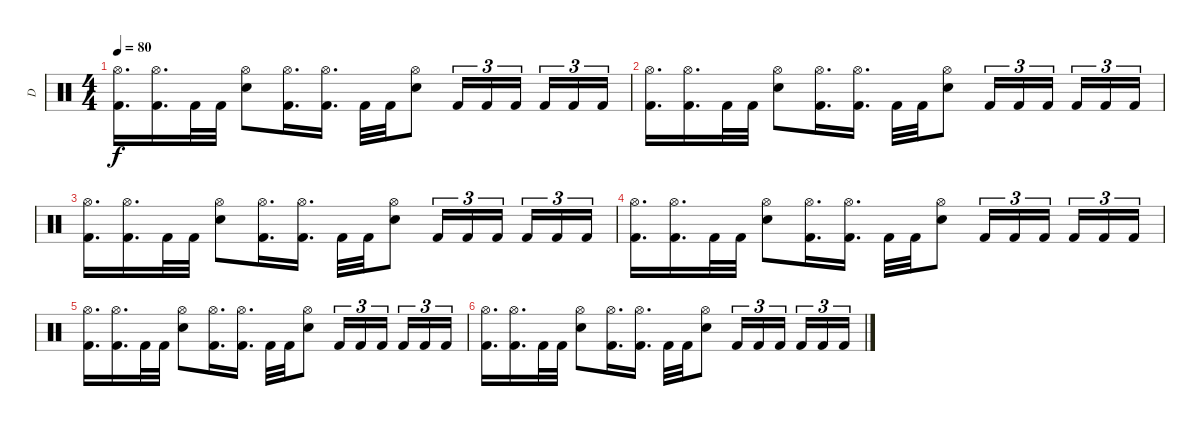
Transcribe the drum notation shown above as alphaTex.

\track ("D" "D") {instrument percussion}
\staff {score}
\articulation defaults
\ts (4 4)
\tempo 80
\clef neutral
\ks c
("Hi-Hat (open)" "Kick (hit) 2").16{d dy f} ("Hi-Hat (open)" "Kick (hit) 2").16{d} "Kick (hit) 2".32 "Kick (hit) 2".32 ("Hi-Hat (open)" "Electric Snare (hit)").8 ("Hi-Hat (open)" "Kick (hit) 2").16{d} ("Hi-Hat (open)" "Kick (hit) 2").16{d} "Kick (hit) 2".32 "Kick (hit) 2".32 ("Hi-Hat (open)" "Electric Snare (hit)").8 "Kick (hit) 2".16{tu (3 2)} "Kick (hit) 2".16{tu (3 2)} "Kick (hit) 2".16{tu (3 2) beam splitsecondary} "Kick (hit) 2".16{tu (3 2)} "Kick (hit) 2".16{tu (3 2)} "Kick (hit) 2".16{tu (3 2)} |
("Hi-Hat (open)" "Kick (hit) 2").16{d} ("Hi-Hat (open)" "Kick (hit) 2").16{d} "Kick (hit) 2".32 "Kick (hit) 2".32 ("Hi-Hat (open)" "Electric Snare (hit)").8 ("Hi-Hat (open)" "Kick (hit) 2").16{d} ("Hi-Hat (open)" "Kick (hit) 2").16{d} "Kick (hit) 2".32 "Kick (hit) 2".32 ("Hi-Hat (open)" "Electric Snare (hit)").8 "Kick (hit) 2".16{tu (3 2)} "Kick (hit) 2".16{tu (3 2)} "Kick (hit) 2".16{tu (3 2) beam splitsecondary} "Kick (hit) 2".16{tu (3 2)} "Kick (hit) 2".16{tu (3 2)} "Kick (hit) 2".16{tu (3 2)} |
("Hi-Hat (open)" "Kick (hit) 2").16{d} ("Hi-Hat (open)" "Kick (hit) 2").16{d} "Kick (hit) 2".32 "Kick (hit) 2".32 ("Hi-Hat (open)" "Electric Snare (hit)").8 ("Hi-Hat (open)" "Kick (hit) 2").16{d} ("Hi-Hat (open)" "Kick (hit) 2").16{d} "Kick (hit) 2".32 "Kick (hit) 2".32 ("Hi-Hat (open)" "Electric Snare (hit)").8 "Kick (hit) 2".16{tu (3 2)} "Kick (hit) 2".16{tu (3 2)} "Kick (hit) 2".16{tu (3 2) beam splitsecondary} "Kick (hit) 2".16{tu (3 2)} "Kick (hit) 2".16{tu (3 2)} "Kick (hit) 2".16{tu (3 2)} |
("Hi-Hat (open)" "Kick (hit) 2").16{d} ("Hi-Hat (open)" "Kick (hit) 2").16{d} "Kick (hit) 2".32 "Kick (hit) 2".32 ("Hi-Hat (open)" "Electric Snare (hit)").8 ("Hi-Hat (open)" "Kick (hit) 2").16{d} ("Hi-Hat (open)" "Kick (hit) 2").16{d} "Kick (hit) 2".32 "Kick (hit) 2".32 ("Hi-Hat (open)" "Electric Snare (hit)").8 "Kick (hit) 2".16{tu (3 2)} "Kick (hit) 2".16{tu (3 2)} "Kick (hit) 2".16{tu (3 2) beam splitsecondary} "Kick (hit) 2".16{tu (3 2)} "Kick (hit) 2".16{tu (3 2)} "Kick (hit) 2".16{tu (3 2)} |
("Hi-Hat (open)" "Kick (hit) 2").16{d} ("Hi-Hat (open)" "Kick (hit) 2").16{d} "Kick (hit) 2".32 "Kick (hit) 2".32 ("Hi-Hat (open)" "Electric Snare (hit)").8 ("Hi-Hat (open)" "Kick (hit) 2").16{d} ("Hi-Hat (open)" "Kick (hit) 2").16{d} "Kick (hit) 2".32 "Kick (hit) 2".32 ("Hi-Hat (open)" "Electric Snare (hit)").8 "Kick (hit) 2".16{tu (3 2)} "Kick (hit) 2".16{tu (3 2)} "Kick (hit) 2".16{tu (3 2) beam splitsecondary} "Kick (hit) 2".16{tu (3 2)} "Kick (hit) 2".16{tu (3 2)} "Kick (hit) 2".16{tu (3 2)} |
("Hi-Hat (open)" "Kick (hit) 2").16{d} ("Hi-Hat (open)" "Kick (hit) 2").16{d} "Kick (hit) 2".32 "Kick (hit) 2".32 ("Hi-Hat (open)" "Electric Snare (hit)").8 ("Hi-Hat (open)" "Kick (hit) 2").16{d} ("Hi-Hat (open)" "Kick (hit) 2").16{d} "Kick (hit) 2".32 "Kick (hit) 2".32 ("Hi-Hat (open)" "Electric Snare (hit)").8 "Kick (hit) 2".16{tu (3 2)} "Kick (hit) 2".16{tu (3 2)} "Kick (hit) 2".16{tu (3 2) beam splitsecondary} "Kick (hit) 2".16{tu (3 2)} "Kick (hit) 2".16{tu (3 2)} "Kick (hit) 2".16{tu (3 2)}
